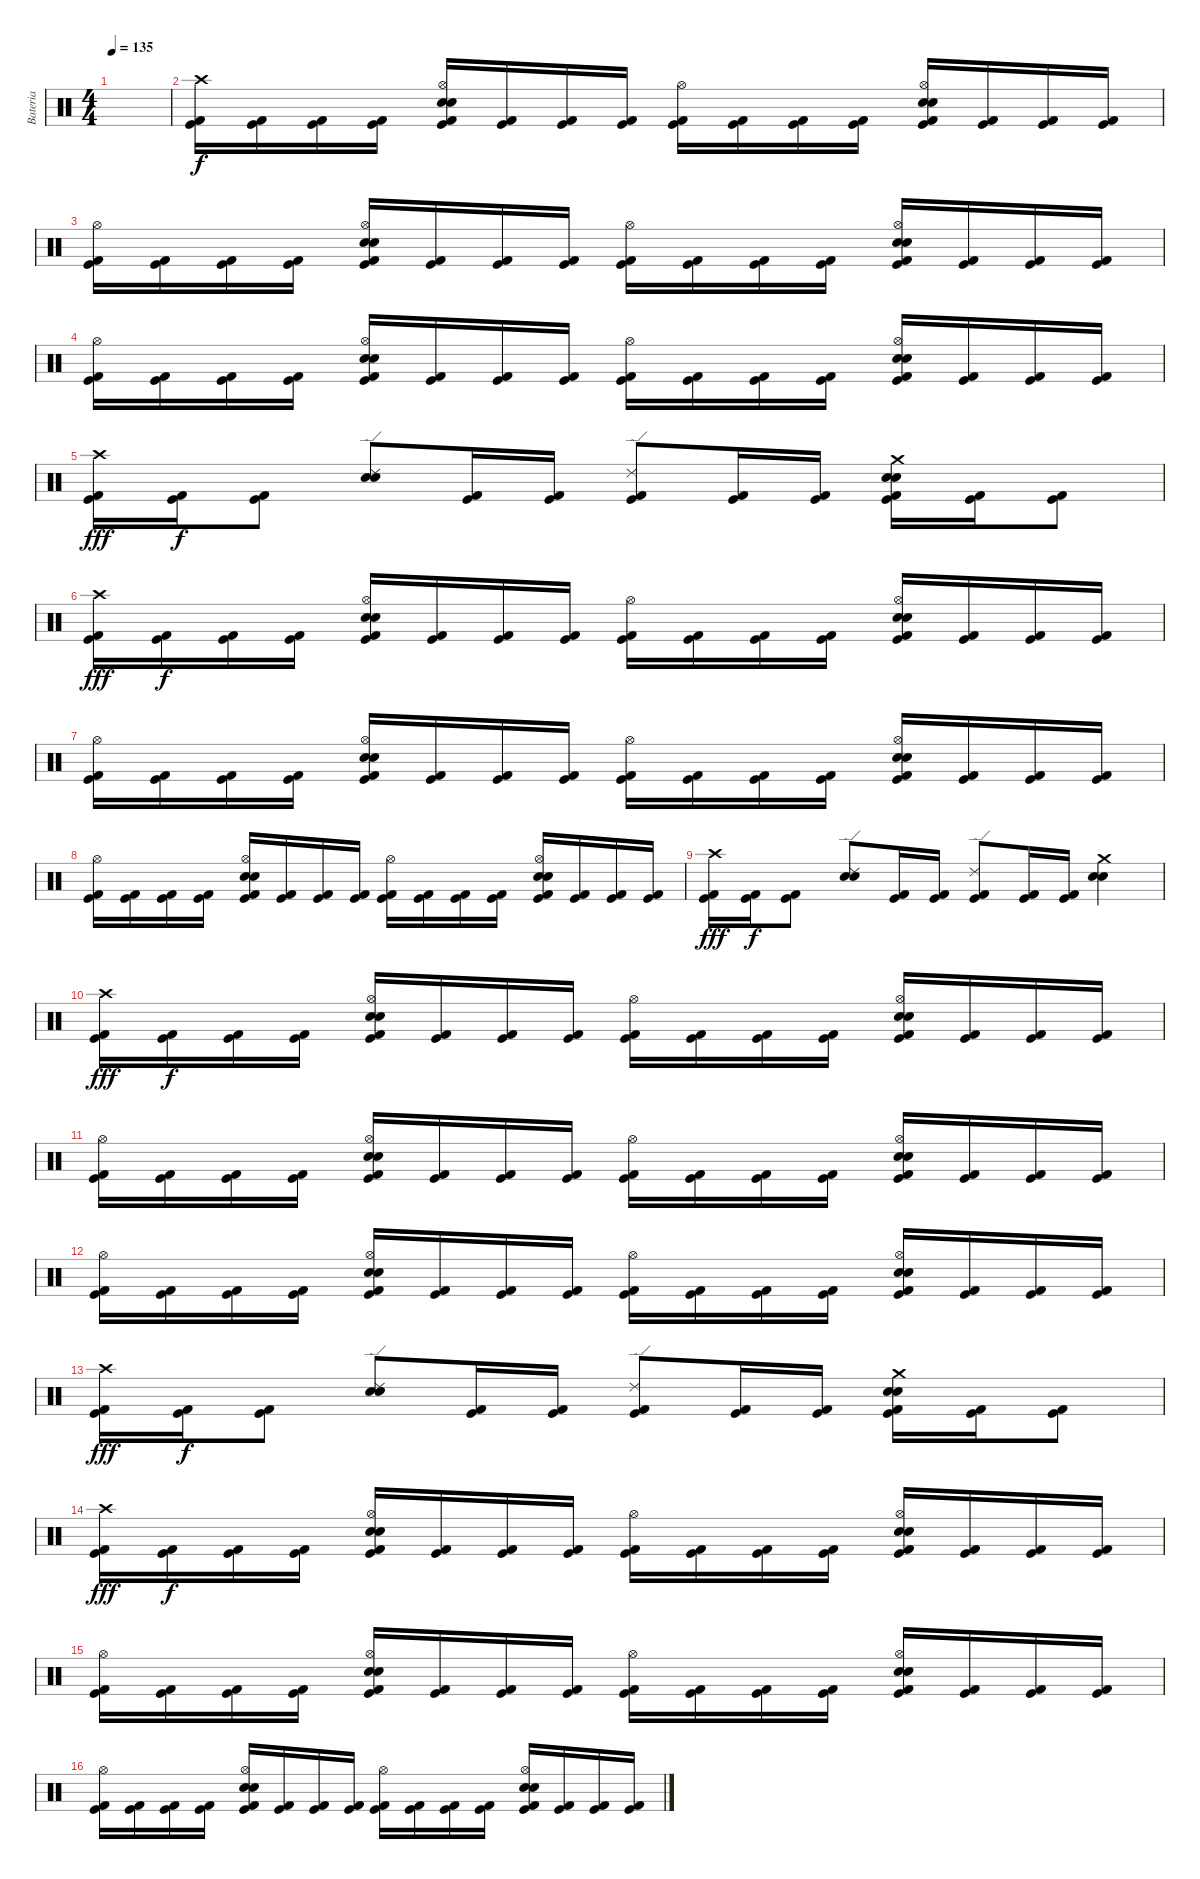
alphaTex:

\track ("Bateria" "Bateria") {instrument percussion}
\staff {score}
\articulation defaults
\ts (4 4)
\tempo 135
\clef neutral
\ks c
|
("Crash high (hit)" "Kick (hit) 2" "Kick (hit)").16 ("Kick (hit) 2" "Kick (hit)").16{dy f} ("Kick (hit) 2" "Kick (hit)").16 ("Kick (hit) 2" "Kick (hit)").16 ("Hi-Hat (open)" "Electric Snare (hit)" "Snare (hit) 2" "Kick (hit) 2" "Kick (hit)").16 ("Kick (hit) 2" "Kick (hit)").16 ("Kick (hit) 2" "Kick (hit)").16 ("Kick (hit) 2" "Kick (hit)").16 ("Hi-Hat (open)" "Kick (hit) 2" "Kick (hit)").16 ("Kick (hit) 2" "Kick (hit)").16 ("Kick (hit) 2" "Kick (hit)").16 ("Kick (hit) 2" "Kick (hit)").16 ("Hi-Hat (open)" "Electric Snare (hit)" "Snare (hit) 2" "Kick (hit) 2" "Kick (hit)").16 ("Kick (hit) 2" "Kick (hit)").16 ("Kick (hit) 2" "Kick (hit)").16 ("Kick (hit) 2" "Kick (hit)").16 |
("Hi-Hat (open)" "Kick (hit) 2" "Kick (hit)").16 ("Kick (hit) 2" "Kick (hit)").16 ("Kick (hit) 2" "Kick (hit)").16 ("Kick (hit) 2" "Kick (hit)").16 ("Hi-Hat (open)" "Electric Snare (hit)" "Snare (hit) 2" "Kick (hit) 2" "Kick (hit)").16 ("Kick (hit) 2" "Kick (hit)").16 ("Kick (hit) 2" "Kick (hit)").16 ("Kick (hit) 2" "Kick (hit)").16 ("Hi-Hat (open)" "Kick (hit) 2" "Kick (hit)").16 ("Kick (hit) 2" "Kick (hit)").16 ("Kick (hit) 2" "Kick (hit)").16 ("Kick (hit) 2" "Kick (hit)").16 ("Hi-Hat (open)" "Electric Snare (hit)" "Snare (hit) 2" "Kick (hit) 2" "Kick (hit)").16 ("Kick (hit) 2" "Kick (hit)").16 ("Kick (hit) 2" "Kick (hit)").16 ("Kick (hit) 2" "Kick (hit)").16 |
("Hi-Hat (open)" "Kick (hit) 2" "Kick (hit)").16 ("Kick (hit) 2" "Kick (hit)").16 ("Kick (hit) 2" "Kick (hit)").16 ("Kick (hit) 2" "Kick (hit)").16 ("Hi-Hat (open)" "Electric Snare (hit)" "Snare (hit) 2" "Kick (hit) 2" "Kick (hit)").16 ("Kick (hit) 2" "Kick (hit)").16 ("Kick (hit) 2" "Kick (hit)").16 ("Kick (hit) 2" "Kick (hit)").16 ("Hi-Hat (open)" "Kick (hit) 2" "Kick (hit)").16 ("Kick (hit) 2" "Kick (hit)").16 ("Kick (hit) 2" "Kick (hit)").16 ("Kick (hit) 2" "Kick (hit)").16 ("Hi-Hat (open)" "Electric Snare (hit)" "Snare (hit) 2" "Kick (hit) 2" "Kick (hit)").16 ("Kick (hit) 2" "Kick (hit)").16 ("Kick (hit) 2" "Kick (hit)").16 ("Kick (hit) 2" "Kick (hit)").16 |
("Crash high (hit)" "Kick (hit) 2" "Kick (hit)").16{dy fff} ("Kick (hit) 2" "Kick (hit)").16{dy f} ("Kick (hit) 2" "Kick (hit)").8 ("Ride (edge) 2" "Electric Snare (hit)" "Snare (hit) 2").8 ("Kick (hit) 2" "Kick (hit)").16 ("Kick (hit) 2" "Kick (hit)").16 ("Ride (edge) 2" "Kick (hit) 2" "Kick (hit)").8 ("Kick (hit) 2" "Kick (hit)").16 ("Kick (hit) 2" "Kick (hit)").16 ("Crash medium (hit)" "Electric Snare (hit)" "Snare (hit) 2" "Kick (hit) 2" "Kick (hit)").16 ("Kick (hit) 2" "Kick (hit)").16 ("Kick (hit) 2" "Kick (hit)").8 |
("Crash high (hit)" "Kick (hit) 2" "Kick (hit)").16{dy fff} ("Kick (hit) 2" "Kick (hit)").16{dy f} ("Kick (hit) 2" "Kick (hit)").16 ("Kick (hit) 2" "Kick (hit)").16 ("Hi-Hat (open)" "Electric Snare (hit)" "Snare (hit) 2" "Kick (hit) 2" "Kick (hit)").16 ("Kick (hit) 2" "Kick (hit)").16 ("Kick (hit) 2" "Kick (hit)").16 ("Kick (hit) 2" "Kick (hit)").16 ("Hi-Hat (open)" "Kick (hit) 2" "Kick (hit)").16 ("Kick (hit) 2" "Kick (hit)").16 ("Kick (hit) 2" "Kick (hit)").16 ("Kick (hit) 2" "Kick (hit)").16 ("Hi-Hat (open)" "Electric Snare (hit)" "Snare (hit) 2" "Kick (hit) 2" "Kick (hit)").16 ("Kick (hit) 2" "Kick (hit)").16 ("Kick (hit) 2" "Kick (hit)").16 ("Kick (hit) 2" "Kick (hit)").16 |
("Hi-Hat (open)" "Kick (hit) 2" "Kick (hit)").16 ("Kick (hit) 2" "Kick (hit)").16 ("Kick (hit) 2" "Kick (hit)").16 ("Kick (hit) 2" "Kick (hit)").16 ("Hi-Hat (open)" "Electric Snare (hit)" "Snare (hit) 2" "Kick (hit) 2" "Kick (hit)").16 ("Kick (hit) 2" "Kick (hit)").16 ("Kick (hit) 2" "Kick (hit)").16 ("Kick (hit) 2" "Kick (hit)").16 ("Hi-Hat (open)" "Kick (hit) 2" "Kick (hit)").16 ("Kick (hit) 2" "Kick (hit)").16 ("Kick (hit) 2" "Kick (hit)").16 ("Kick (hit) 2" "Kick (hit)").16 ("Hi-Hat (open)" "Electric Snare (hit)" "Snare (hit) 2" "Kick (hit) 2" "Kick (hit)").16 ("Kick (hit) 2" "Kick (hit)").16 ("Kick (hit) 2" "Kick (hit)").16 ("Kick (hit) 2" "Kick (hit)").16 |
("Hi-Hat (open)" "Kick (hit) 2" "Kick (hit)").16 ("Kick (hit) 2" "Kick (hit)").16 ("Kick (hit) 2" "Kick (hit)").16 ("Kick (hit) 2" "Kick (hit)").16 ("Hi-Hat (open)" "Electric Snare (hit)" "Snare (hit) 2" "Kick (hit) 2" "Kick (hit)").16 ("Kick (hit) 2" "Kick (hit)").16 ("Kick (hit) 2" "Kick (hit)").16 ("Kick (hit) 2" "Kick (hit)").16 ("Hi-Hat (open)" "Kick (hit) 2" "Kick (hit)").16 ("Kick (hit) 2" "Kick (hit)").16 ("Kick (hit) 2" "Kick (hit)").16 ("Kick (hit) 2" "Kick (hit)").16 ("Hi-Hat (open)" "Electric Snare (hit)" "Snare (hit) 2" "Kick (hit) 2" "Kick (hit)").16 ("Kick (hit) 2" "Kick (hit)").16 ("Kick (hit) 2" "Kick (hit)").16 ("Kick (hit) 2" "Kick (hit)").16 |
("Crash high (hit)" "Kick (hit) 2" "Kick (hit)").16{dy fff} ("Kick (hit) 2" "Kick (hit)").16{dy f} ("Kick (hit) 2" "Kick (hit)").8 ("Ride (edge) 2" "Electric Snare (hit)" "Snare (hit) 2").8 ("Kick (hit) 2" "Kick (hit)").16 ("Kick (hit) 2" "Kick (hit)").16 ("Ride (edge) 2" "Kick (hit) 2" "Kick (hit)").8 ("Kick (hit) 2" "Kick (hit)").16 ("Kick (hit) 2" "Kick (hit)").16 ("Crash medium (hit)" "Electric Snare (hit)" "Snare (hit) 2").4 |
("Crash high (hit)" "Kick (hit) 2" "Kick (hit)").16{dy fff} ("Kick (hit) 2" "Kick (hit)").16{dy f} ("Kick (hit) 2" "Kick (hit)").16 ("Kick (hit) 2" "Kick (hit)").16 ("Hi-Hat (open)" "Electric Snare (hit)" "Snare (hit) 2" "Kick (hit) 2" "Kick (hit)").16 ("Kick (hit) 2" "Kick (hit)").16 ("Kick (hit) 2" "Kick (hit)").16 ("Kick (hit) 2" "Kick (hit)").16 ("Hi-Hat (open)" "Kick (hit) 2" "Kick (hit)").16 ("Kick (hit) 2" "Kick (hit)").16 ("Kick (hit) 2" "Kick (hit)").16 ("Kick (hit) 2" "Kick (hit)").16 ("Hi-Hat (open)" "Electric Snare (hit)" "Snare (hit) 2" "Kick (hit) 2" "Kick (hit)").16 ("Kick (hit) 2" "Kick (hit)").16 ("Kick (hit) 2" "Kick (hit)").16 ("Kick (hit) 2" "Kick (hit)").16 |
("Hi-Hat (open)" "Kick (hit) 2" "Kick (hit)").16 ("Kick (hit) 2" "Kick (hit)").16 ("Kick (hit) 2" "Kick (hit)").16 ("Kick (hit) 2" "Kick (hit)").16 ("Hi-Hat (open)" "Electric Snare (hit)" "Snare (hit) 2" "Kick (hit) 2" "Kick (hit)").16 ("Kick (hit) 2" "Kick (hit)").16 ("Kick (hit) 2" "Kick (hit)").16 ("Kick (hit) 2" "Kick (hit)").16 ("Hi-Hat (open)" "Kick (hit) 2" "Kick (hit)").16 ("Kick (hit) 2" "Kick (hit)").16 ("Kick (hit) 2" "Kick (hit)").16 ("Kick (hit) 2" "Kick (hit)").16 ("Hi-Hat (open)" "Electric Snare (hit)" "Snare (hit) 2" "Kick (hit) 2" "Kick (hit)").16 ("Kick (hit) 2" "Kick (hit)").16 ("Kick (hit) 2" "Kick (hit)").16 ("Kick (hit) 2" "Kick (hit)").16 |
("Hi-Hat (open)" "Kick (hit) 2" "Kick (hit)").16 ("Kick (hit) 2" "Kick (hit)").16 ("Kick (hit) 2" "Kick (hit)").16 ("Kick (hit) 2" "Kick (hit)").16 ("Hi-Hat (open)" "Electric Snare (hit)" "Snare (hit) 2" "Kick (hit) 2" "Kick (hit)").16 ("Kick (hit) 2" "Kick (hit)").16 ("Kick (hit) 2" "Kick (hit)").16 ("Kick (hit) 2" "Kick (hit)").16 ("Hi-Hat (open)" "Kick (hit) 2" "Kick (hit)").16 ("Kick (hit) 2" "Kick (hit)").16 ("Kick (hit) 2" "Kick (hit)").16 ("Kick (hit) 2" "Kick (hit)").16 ("Hi-Hat (open)" "Electric Snare (hit)" "Snare (hit) 2" "Kick (hit) 2" "Kick (hit)").16 ("Kick (hit) 2" "Kick (hit)").16 ("Kick (hit) 2" "Kick (hit)").16 ("Kick (hit) 2" "Kick (hit)").16 |
("Crash high (hit)" "Kick (hit) 2" "Kick (hit)").16{dy fff} ("Kick (hit) 2" "Kick (hit)").16{dy f} ("Kick (hit) 2" "Kick (hit)").8 ("Ride (edge) 2" "Electric Snare (hit)" "Snare (hit) 2").8 ("Kick (hit) 2" "Kick (hit)").16 ("Kick (hit) 2" "Kick (hit)").16 ("Ride (edge) 2" "Kick (hit) 2" "Kick (hit)").8 ("Kick (hit) 2" "Kick (hit)").16 ("Kick (hit) 2" "Kick (hit)").16 ("Crash medium (hit)" "Electric Snare (hit)" "Snare (hit) 2" "Kick (hit) 2" "Kick (hit)").16 ("Kick (hit) 2" "Kick (hit)").16 ("Kick (hit) 2" "Kick (hit)").8 |
("Crash high (hit)" "Kick (hit) 2" "Kick (hit)").16{dy fff} ("Kick (hit) 2" "Kick (hit)").16{dy f} ("Kick (hit) 2" "Kick (hit)").16 ("Kick (hit) 2" "Kick (hit)").16 ("Hi-Hat (open)" "Electric Snare (hit)" "Snare (hit) 2" "Kick (hit) 2" "Kick (hit)").16 ("Kick (hit) 2" "Kick (hit)").16 ("Kick (hit) 2" "Kick (hit)").16 ("Kick (hit) 2" "Kick (hit)").16 ("Hi-Hat (open)" "Kick (hit) 2" "Kick (hit)").16 ("Kick (hit) 2" "Kick (hit)").16 ("Kick (hit) 2" "Kick (hit)").16 ("Kick (hit) 2" "Kick (hit)").16 ("Hi-Hat (open)" "Electric Snare (hit)" "Snare (hit) 2" "Kick (hit) 2" "Kick (hit)").16 ("Kick (hit) 2" "Kick (hit)").16 ("Kick (hit) 2" "Kick (hit)").16 ("Kick (hit) 2" "Kick (hit)").16 |
("Hi-Hat (open)" "Kick (hit) 2" "Kick (hit)").16 ("Kick (hit) 2" "Kick (hit)").16 ("Kick (hit) 2" "Kick (hit)").16 ("Kick (hit) 2" "Kick (hit)").16 ("Hi-Hat (open)" "Electric Snare (hit)" "Snare (hit) 2" "Kick (hit) 2" "Kick (hit)").16 ("Kick (hit) 2" "Kick (hit)").16 ("Kick (hit) 2" "Kick (hit)").16 ("Kick (hit) 2" "Kick (hit)").16 ("Hi-Hat (open)" "Kick (hit) 2" "Kick (hit)").16 ("Kick (hit) 2" "Kick (hit)").16 ("Kick (hit) 2" "Kick (hit)").16 ("Kick (hit) 2" "Kick (hit)").16 ("Hi-Hat (open)" "Electric Snare (hit)" "Snare (hit) 2" "Kick (hit) 2" "Kick (hit)").16 ("Kick (hit) 2" "Kick (hit)").16 ("Kick (hit) 2" "Kick (hit)").16 ("Kick (hit) 2" "Kick (hit)").16 |
("Hi-Hat (open)" "Kick (hit) 2" "Kick (hit)").16 ("Kick (hit) 2" "Kick (hit)").16 ("Kick (hit) 2" "Kick (hit)").16 ("Kick (hit) 2" "Kick (hit)").16 ("Hi-Hat (open)" "Electric Snare (hit)" "Snare (hit) 2" "Kick (hit) 2" "Kick (hit)").16 ("Kick (hit) 2" "Kick (hit)").16 ("Kick (hit) 2" "Kick (hit)").16 ("Kick (hit) 2" "Kick (hit)").16 ("Hi-Hat (open)" "Kick (hit) 2" "Kick (hit)").16 ("Kick (hit) 2" "Kick (hit)").16 ("Kick (hit) 2" "Kick (hit)").16 ("Kick (hit) 2" "Kick (hit)").16 ("Hi-Hat (open)" "Electric Snare (hit)" "Snare (hit) 2" "Kick (hit) 2" "Kick (hit)").16 ("Kick (hit) 2" "Kick (hit)").16 ("Kick (hit) 2" "Kick (hit)").16 ("Kick (hit) 2" "Kick (hit)").16
